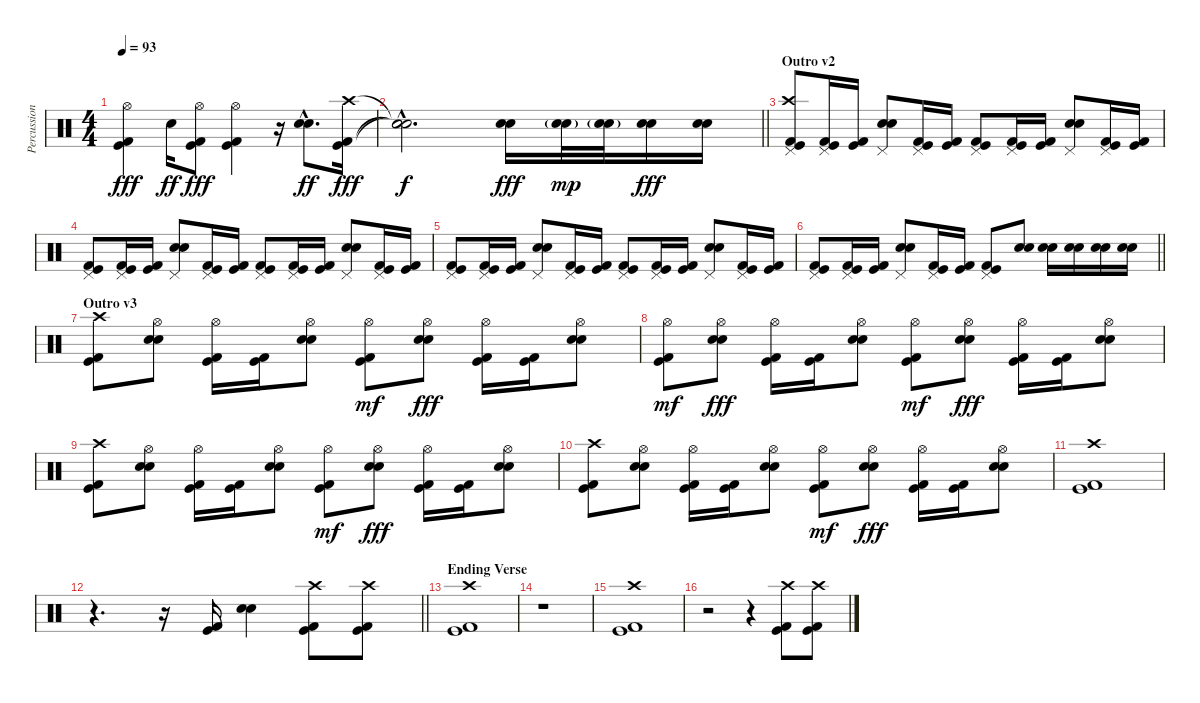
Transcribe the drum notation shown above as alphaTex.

\track ("Percussion" "Percussion") {instrument percussion}
\staff {score}
\articulation defaults
\ts (4 4)
\tempo 93
\clef neutral
\ks c
("Hi-Hat (open)" "Kick (hit)" "Kick (hit) 2").4{dy fff} "Electric Snare (hit)".16{dy ff} ("Hi-Hat (open)" "Kick (hit)" "Kick (hit) 2").8{dy fff} ("Hi-Hat (open)" "Kick (hit)" "Kick (hit) 2").4 r.16 ("Electric Snare (hit)"{hac} "Snare (hit) 2"{hac}).8{d dy ff} ("Crash high (hit)" "Kick (hit)" "Kick (hit) 2").16{dy fff} |
\barLineRight lightlight
("Snare (hit)"{hac t} "Snare (hit)"{hac t} "Snare (hit)"{hac t}).2{d dy f} ("Electric Snare (hit)" "Snare (hit) 2").16{dy fff} ("Electric Snare (hit)"{g} "Snare (hit) 2"{g}).32{dy mp} ("Electric Snare (hit)"{g} "Snare (hit) 2"{g}).32 ("Electric Snare (hit)" "Snare (hit) 2").16{dy fff} ("Electric Snare (hit)" "Snare (hit) 2").16 |
\section ("" "Outro v2")
("Crash high (hit)" "Pedal Hi-Hat (hit)" "Kick (hit)" "Kick (hit) 2").8 ("Pedal Hi-Hat (hit)" "Kick (hit)" "Kick (hit) 2").16 ("Kick (hit)" "Kick (hit) 2").16 ("Electric Snare (hit)" "Snare (hit) 2" "Pedal Hi-Hat (hit)").8 ("Pedal Hi-Hat (hit)" "Kick (hit)" "Kick (hit) 2").16 ("Kick (hit)" "Kick (hit) 2").16 ("Pedal Hi-Hat (hit)" "Kick (hit)" "Kick (hit) 2").8 ("Pedal Hi-Hat (hit)" "Kick (hit)" "Kick (hit) 2").16 ("Kick (hit)" "Kick (hit) 2").16 ("Electric Snare (hit)" "Snare (hit) 2" "Pedal Hi-Hat (hit)").8 ("Pedal Hi-Hat (hit)" "Kick (hit)" "Kick (hit) 2").16 ("Kick (hit)" "Kick (hit) 2").16 |
("Pedal Hi-Hat (hit)" "Kick (hit)" "Kick (hit) 2").8 ("Pedal Hi-Hat (hit)" "Kick (hit)" "Kick (hit) 2").16 ("Kick (hit)" "Kick (hit) 2").16 ("Electric Snare (hit)" "Snare (hit) 2" "Pedal Hi-Hat (hit)").8 ("Pedal Hi-Hat (hit)" "Kick (hit)" "Kick (hit) 2").16 ("Kick (hit)" "Kick (hit) 2").16 ("Pedal Hi-Hat (hit)" "Kick (hit)" "Kick (hit) 2").8 ("Pedal Hi-Hat (hit)" "Kick (hit)" "Kick (hit) 2").16 ("Kick (hit)" "Kick (hit) 2").16 ("Electric Snare (hit)" "Snare (hit) 2" "Pedal Hi-Hat (hit)").8 ("Pedal Hi-Hat (hit)" "Kick (hit)" "Kick (hit) 2").16 ("Kick (hit)" "Kick (hit) 2").16 |
("Pedal Hi-Hat (hit)" "Kick (hit)" "Kick (hit) 2").8 ("Pedal Hi-Hat (hit)" "Kick (hit)" "Kick (hit) 2").16 ("Kick (hit)" "Kick (hit) 2").16 ("Electric Snare (hit)" "Snare (hit) 2" "Pedal Hi-Hat (hit)").8 ("Pedal Hi-Hat (hit)" "Kick (hit)" "Kick (hit) 2").16 ("Kick (hit)" "Kick (hit) 2").16 ("Pedal Hi-Hat (hit)" "Kick (hit)" "Kick (hit) 2").8 ("Pedal Hi-Hat (hit)" "Kick (hit)" "Kick (hit) 2").16 ("Kick (hit)" "Kick (hit) 2").16 ("Electric Snare (hit)" "Snare (hit) 2" "Pedal Hi-Hat (hit)").8 ("Pedal Hi-Hat (hit)" "Kick (hit)" "Kick (hit) 2").16 ("Kick (hit)" "Kick (hit) 2").16 |
\barLineRight lightlight
("Pedal Hi-Hat (hit)" "Kick (hit)" "Kick (hit) 2").8 ("Pedal Hi-Hat (hit)" "Kick (hit)" "Kick (hit) 2").16 ("Kick (hit)" "Kick (hit) 2").16 ("Electric Snare (hit)" "Snare (hit) 2" "Pedal Hi-Hat (hit)").8 ("Pedal Hi-Hat (hit)" "Kick (hit)" "Kick (hit) 2").16 ("Kick (hit)" "Kick (hit) 2").16 ("Pedal Hi-Hat (hit)" "Kick (hit)" "Kick (hit) 2").8 ("Electric Snare (hit)" "Snare (hit) 2").8 ("Electric Snare (hit)" "Snare (hit) 2").16 ("Electric Snare (hit)" "Snare (hit) 2").16 ("Electric Snare (hit)" "Snare (hit) 2").16 ("Electric Snare (hit)" "Snare (hit) 2").16 |
\section ("" "Outro v3")
("Crash high (hit)" "Kick (hit)" "Kick (hit) 2").8 ("Hi-Hat (open)" "Electric Snare (hit)" "Snare (hit) 2").8 ("Hi-Hat (open)" "Kick (hit)" "Kick (hit) 2").16 ("Kick (hit)" "Kick (hit) 2").16 ("Hi-Hat (open)" "Electric Snare (hit)" "Snare (hit) 2").8 ("Hi-Hat (open)" "Kick (hit)" "Kick (hit) 2").8{dy mf} ("Hi-Hat (open)" "Electric Snare (hit)" "Snare (hit) 2").8{dy fff} ("Hi-Hat (open)" "Kick (hit)" "Kick (hit) 2").16 ("Kick (hit)" "Kick (hit) 2").16 ("Hi-Hat (open)" "Electric Snare (hit)" "Snare (hit) 2").8 |
("Hi-Hat (open)" "Kick (hit)" "Kick (hit) 2").8{dy mf} ("Hi-Hat (open)" "Electric Snare (hit)" "Snare (hit) 2").8{dy fff} ("Hi-Hat (open)" "Kick (hit)" "Kick (hit) 2").16 ("Kick (hit)" "Kick (hit) 2").16 ("Hi-Hat (open)" "Electric Snare (hit)" "Snare (hit) 2").8 ("Hi-Hat (open)" "Kick (hit)" "Kick (hit) 2").8{dy mf} ("Hi-Hat (open)" "Electric Snare (hit)" "Snare (hit) 2").8{dy fff} ("Hi-Hat (open)" "Kick (hit)" "Kick (hit) 2").16 ("Kick (hit)" "Kick (hit) 2").16 ("Hi-Hat (open)" "Electric Snare (hit)" "Snare (hit) 2").8 |
("Crash high (hit)" "Kick (hit)" "Kick (hit) 2").8 ("Hi-Hat (open)" "Electric Snare (hit)" "Snare (hit) 2").8 ("Hi-Hat (open)" "Kick (hit)" "Kick (hit) 2").16 ("Kick (hit)" "Kick (hit) 2").16 ("Hi-Hat (open)" "Electric Snare (hit)" "Snare (hit) 2").8 ("Hi-Hat (open)" "Kick (hit)" "Kick (hit) 2").8{dy mf} ("Hi-Hat (open)" "Electric Snare (hit)" "Snare (hit) 2").8{dy fff} ("Hi-Hat (open)" "Kick (hit)" "Kick (hit) 2").16 ("Kick (hit)" "Kick (hit) 2").16 ("Hi-Hat (open)" "Electric Snare (hit)" "Snare (hit) 2").8 |
("Crash high (hit)" "Kick (hit)" "Kick (hit) 2").8 ("Hi-Hat (open)" "Electric Snare (hit)" "Snare (hit) 2").8 ("Hi-Hat (open)" "Kick (hit)" "Kick (hit) 2").16 ("Kick (hit)" "Kick (hit) 2").16 ("Hi-Hat (open)" "Electric Snare (hit)" "Snare (hit) 2").8 ("Hi-Hat (open)" "Kick (hit)" "Kick (hit) 2").8{dy mf} ("Hi-Hat (open)" "Electric Snare (hit)" "Snare (hit) 2").8{dy fff} ("Hi-Hat (open)" "Kick (hit)" "Kick (hit) 2").16 ("Kick (hit)" "Kick (hit) 2").16 ("Hi-Hat (open)" "Electric Snare (hit)" "Snare (hit) 2").8 |
("Crash high (hit)" "Kick (hit)" "Kick (hit) 2").1 |
\barLineRight lightlight
r.4{d} r.16 ("Kick (hit)" "Kick (hit) 2").16 ("Electric Snare (hit)" "Snare (hit) 2").4{bd 120} ("Crash high (hit)" "Kick (hit)" "Kick (hit) 2").8 ("Crash high (hit)" "Kick (hit)" "Kick (hit) 2").8 |
\section ("" "Ending Verse")
("Crash high (hit)" "Kick (hit)" "Kick (hit) 2").1 |
r.1 |
("Crash high (hit)" "Kick (hit)" "Kick (hit) 2").1 |
r.2 r.4 ("Crash high (hit)" "Kick (hit)" "Kick (hit) 2").8 ("Crash high (hit)" "Kick (hit)" "Kick (hit) 2").8
